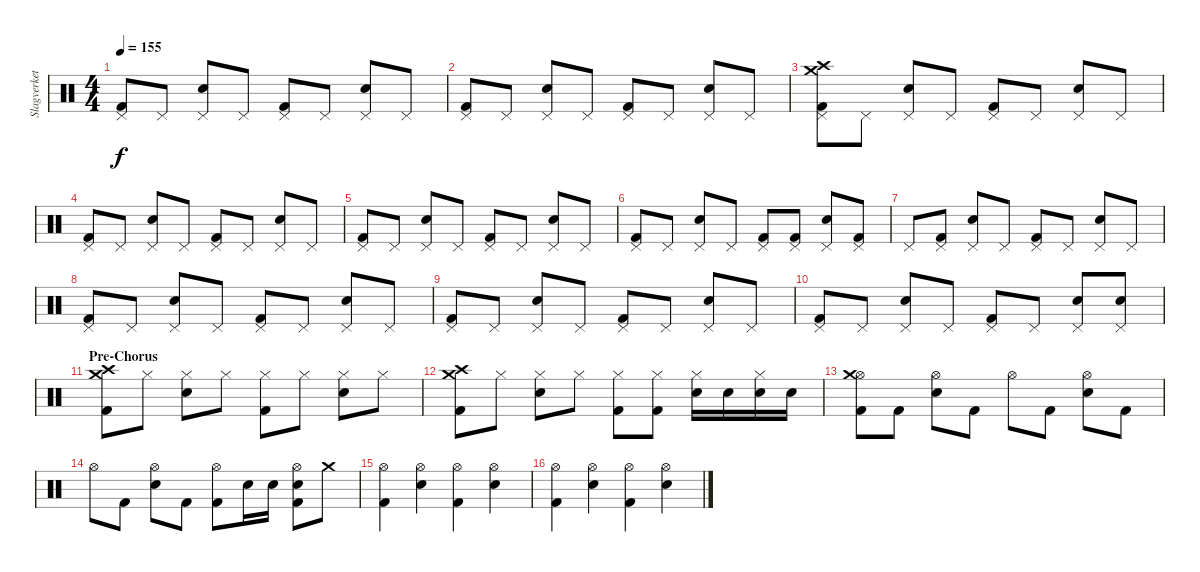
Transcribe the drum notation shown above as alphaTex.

\track ("Slagverket!" "Slagverket") {instrument percussion}
\staff {score}
\articulation defaults
\ts (4 4)
\tempo 155
\clef neutral
\ks c
("Pedal Hi-Hat (hit)" "Kick (hit) 2").8{dy f} "Pedal Hi-Hat (hit)".8 ("Pedal Hi-Hat (hit)" "Electric Snare (hit)").8 "Pedal Hi-Hat (hit)".8 ("Pedal Hi-Hat (hit)" "Kick (hit) 2").8 "Pedal Hi-Hat (hit)".8 ("Pedal Hi-Hat (hit)" "Electric Snare (hit)").8 "Pedal Hi-Hat (hit)".8 |
("Pedal Hi-Hat (hit)" "Kick (hit) 2").8 "Pedal Hi-Hat (hit)".8 ("Pedal Hi-Hat (hit)" "Electric Snare (hit)").8 "Pedal Hi-Hat (hit)".8 ("Pedal Hi-Hat (hit)" "Kick (hit) 2").8 "Pedal Hi-Hat (hit)".8 ("Pedal Hi-Hat (hit)" "Electric Snare (hit)").8 "Pedal Hi-Hat (hit)".8 |
\section ("" "")
("Pedal Hi-Hat (hit)" "Crash medium (hit)" "Crash high (hit)" "Kick (hit) 2").8 "Pedal Hi-Hat (hit)".8 ("Pedal Hi-Hat (hit)" "Electric Snare (hit)").8 "Pedal Hi-Hat (hit)".8 ("Pedal Hi-Hat (hit)" "Kick (hit) 2").8 "Pedal Hi-Hat (hit)".8 ("Pedal Hi-Hat (hit)" "Electric Snare (hit)").8 "Pedal Hi-Hat (hit)".8 |
("Pedal Hi-Hat (hit)" "Kick (hit) 2").8 "Pedal Hi-Hat (hit)".8 ("Pedal Hi-Hat (hit)" "Electric Snare (hit)").8 "Pedal Hi-Hat (hit)".8 ("Pedal Hi-Hat (hit)" "Kick (hit) 2").8 "Pedal Hi-Hat (hit)".8 ("Pedal Hi-Hat (hit)" "Electric Snare (hit)").8 "Pedal Hi-Hat (hit)".8 |
("Pedal Hi-Hat (hit)" "Kick (hit) 2").8 "Pedal Hi-Hat (hit)".8 ("Pedal Hi-Hat (hit)" "Electric Snare (hit)").8 "Pedal Hi-Hat (hit)".8 ("Pedal Hi-Hat (hit)" "Kick (hit) 2").8 "Pedal Hi-Hat (hit)".8 ("Pedal Hi-Hat (hit)" "Electric Snare (hit)").8 "Pedal Hi-Hat (hit)".8 |
("Pedal Hi-Hat (hit)" "Kick (hit) 2").8 "Pedal Hi-Hat (hit)".8 ("Pedal Hi-Hat (hit)" "Electric Snare (hit)").8 "Pedal Hi-Hat (hit)".8 ("Pedal Hi-Hat (hit)" "Kick (hit) 2").8 ("Pedal Hi-Hat (hit)" "Kick (hit) 2").8 ("Pedal Hi-Hat (hit)" "Electric Snare (hit)").8 ("Pedal Hi-Hat (hit)" "Kick (hit) 2").8 |
"Pedal Hi-Hat (hit)".8 ("Pedal Hi-Hat (hit)" "Kick (hit) 2").8 ("Pedal Hi-Hat (hit)" "Electric Snare (hit)").8 "Pedal Hi-Hat (hit)".8 ("Pedal Hi-Hat (hit)" "Kick (hit) 2").8 "Pedal Hi-Hat (hit)".8 ("Pedal Hi-Hat (hit)" "Electric Snare (hit)").8 "Pedal Hi-Hat (hit)".8 |
("Pedal Hi-Hat (hit)" "Kick (hit) 2").8 "Pedal Hi-Hat (hit)".8 ("Pedal Hi-Hat (hit)" "Electric Snare (hit)").8 "Pedal Hi-Hat (hit)".8 ("Pedal Hi-Hat (hit)" "Kick (hit) 2").8 "Pedal Hi-Hat (hit)".8 ("Pedal Hi-Hat (hit)" "Electric Snare (hit)").8 "Pedal Hi-Hat (hit)".8 |
("Pedal Hi-Hat (hit)" "Kick (hit) 2").8 "Pedal Hi-Hat (hit)".8 ("Pedal Hi-Hat (hit)" "Electric Snare (hit)").8 "Pedal Hi-Hat (hit)".8 ("Pedal Hi-Hat (hit)" "Kick (hit) 2").8 "Pedal Hi-Hat (hit)".8 ("Pedal Hi-Hat (hit)" "Electric Snare (hit)").8 "Pedal Hi-Hat (hit)".8 |
("Pedal Hi-Hat (hit)" "Kick (hit) 2").8 "Pedal Hi-Hat (hit)".8 ("Pedal Hi-Hat (hit)" "Electric Snare (hit)").8 "Pedal Hi-Hat (hit)".8 ("Pedal Hi-Hat (hit)" "Kick (hit) 2").8 "Pedal Hi-Hat (hit)".8 ("Pedal Hi-Hat (hit)" "Electric Snare (hit)").8 ("Pedal Hi-Hat (hit)" "Electric Snare (hit)").8 |
\section ("" "Pre-Chorus")
("Crash medium (hit)" "Crash high (hit)" "Kick (hit) 2").8 "Hi-Hat (closed)".8 ("Hi-Hat (closed)" "Electric Snare (hit)").8 "Hi-Hat (closed)".8 ("Hi-Hat (closed)" "Kick (hit) 2").8 "Hi-Hat (closed)".8 ("Hi-Hat (closed)" "Electric Snare (hit)").8 "Hi-Hat (closed)".8 |
("Crash medium (hit)" "Crash high (hit)" "Kick (hit) 2").8 "Hi-Hat (closed)".8 ("Hi-Hat (closed)" "Electric Snare (hit)").8 "Hi-Hat (closed)".8 ("Hi-Hat (closed)" "Kick (hit) 2").8 ("Hi-Hat (closed)" "Kick (hit) 2").8 ("Hi-Hat (closed)" "Electric Snare (hit)").16 "Electric Snare (hit)".16 ("Hi-Hat (closed)" "Electric Snare (hit)").16 "Electric Snare (hit)".16 |
("Hi-Hat (open)" "Crash medium (hit)" "Kick (hit) 2").8 "Kick (hit) 2".8 ("Hi-Hat (open)" "Electric Snare (hit)").8 "Kick (hit) 2".8 "Hi-Hat (open)".8 "Kick (hit) 2".8 ("Hi-Hat (open)" "Electric Snare (hit)").8 "Kick (hit) 2".8 |
"Hi-Hat (open)".8 "Kick (hit) 2".8 ("Hi-Hat (open)" "Electric Snare (hit)").8 "Kick (hit) 2".8 ("Hi-Hat (open)" "Kick (hit) 2").8 "Electric Snare (hit)".16 "Electric Snare (hit)".16 ("Hi-Hat (open)" "Electric Snare (hit)" "Kick (hit) 2").8 "Crash medium (hit)".8 |
("Hi-Hat (open)" "Kick (hit) 2").4 ("Hi-Hat (open)" "Electric Snare (hit)").4 ("Hi-Hat (open)" "Kick (hit) 2").4 ("Hi-Hat (open)" "Electric Snare (hit)").4 |
("Hi-Hat (open)" "Kick (hit) 2").4 ("Hi-Hat (open)" "Electric Snare (hit)").4 ("Hi-Hat (open)" "Kick (hit) 2").4 ("Hi-Hat (open)" "Electric Snare (hit)").4
